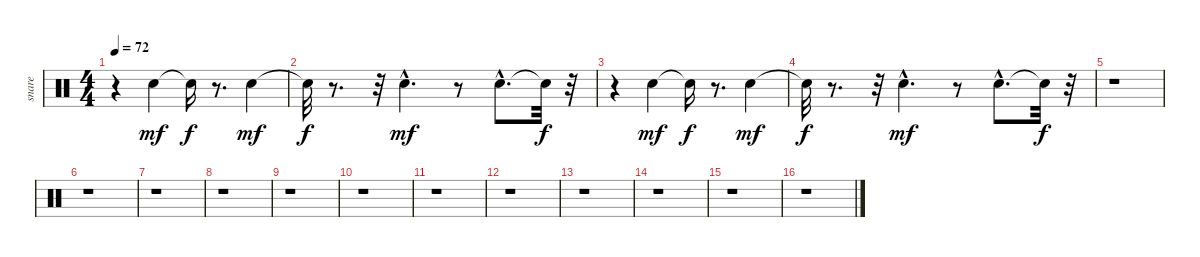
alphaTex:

\track ("snare" "snare") {instrument percussion}
\staff {score}
\articulation defaults
\ts (4 4)
\tempo 72
\clef neutral
\ks c
r.4{dy f} "Snare (hit) 2".4{dy mf} "Snare (hit)"{t}.16{dy f} r.8{d} "Snare (hit) 2".4{dy mf} |
"Snare (hit)"{t}.32{dy f} r.8{d} r.32 "Snare (hit) 2"{hac}.4{d dy mf} r.8 "Snare (hit) 2"{hac}.8{d} "Snare (hit)"{t}.32{dy f} r.32 |
r.4 "Snare (hit) 2".4{dy mf} "Snare (hit)"{t}.16{dy f} r.8{d} "Snare (hit) 2".4{dy mf} |
"Snare (hit)"{t}.32{dy f} r.8{d} r.32 "Snare (hit) 2"{hac}.4{d dy mf} r.8 "Snare (hit) 2"{hac}.8{d} "Snare (hit)"{t}.32{dy f} r.32 |
r.1 |
r.1 |
r.1 |
r.1 |
r.1 |
r.1 |
r.1 |
r.1 |
r.1 |
r.1 |
r.1 |
r.1
